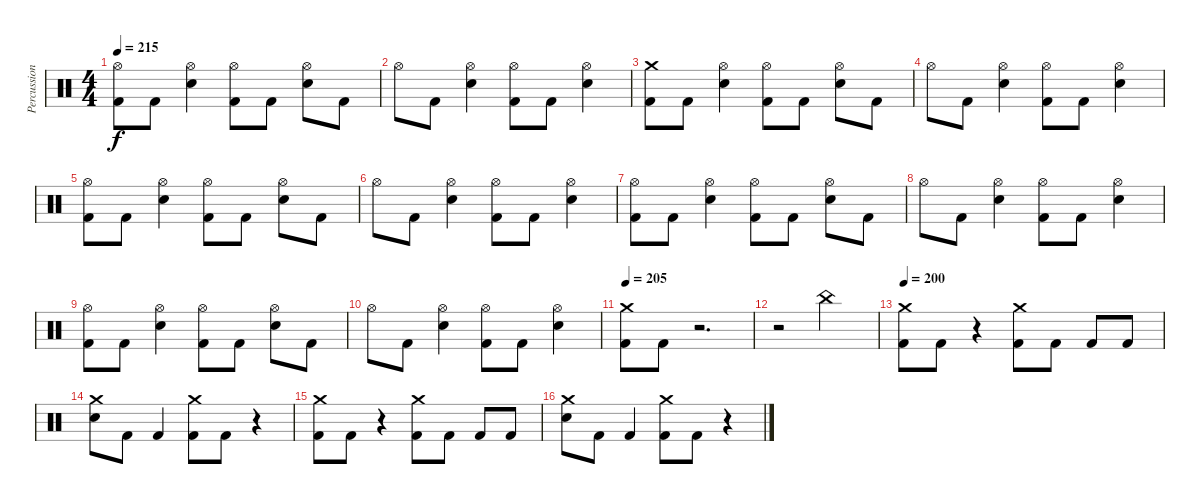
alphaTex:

\track ("Percussion" "Percussion") {instrument percussion}
\staff {score}
\articulation defaults
\ts (4 4)
\tempo 215
\clef neutral
\ks c
("Hi-Hat (open)" "Kick (hit) 2").8{dy f} "Kick (hit) 2".8 ("Hi-Hat (open)" "Electric Snare (hit)").4 ("Hi-Hat (open)" "Kick (hit) 2").8 "Kick (hit) 2".8 ("Hi-Hat (open)" "Electric Snare (hit)").8 "Kick (hit) 2".8 |
"Hi-Hat (open)".8 "Kick (hit) 2".8 ("Hi-Hat (open)" "Electric Snare (hit)").4 ("Hi-Hat (open)" "Kick (hit) 2").8 "Kick (hit) 2".8 ("Hi-Hat (open)" "Electric Snare (hit)").4 |
("Crash medium (hit)" "Kick (hit) 2").8 "Kick (hit) 2".8 ("Hi-Hat (open)" "Electric Snare (hit)").4 ("Hi-Hat (open)" "Kick (hit) 2").8 "Kick (hit) 2".8 ("Hi-Hat (open)" "Electric Snare (hit)").8 "Kick (hit) 2".8 |
"Hi-Hat (open)".8 "Kick (hit) 2".8 ("Hi-Hat (open)" "Electric Snare (hit)").4 ("Hi-Hat (open)" "Kick (hit) 2").8 "Kick (hit) 2".8 ("Hi-Hat (open)" "Electric Snare (hit)").4 |
("Hi-Hat (open)" "Kick (hit) 2").8 "Kick (hit) 2".8 ("Hi-Hat (open)" "Electric Snare (hit)").4 ("Hi-Hat (open)" "Kick (hit) 2").8 "Kick (hit) 2".8 ("Hi-Hat (open)" "Electric Snare (hit)").8 "Kick (hit) 2".8 |
"Hi-Hat (open)".8 "Kick (hit) 2".8 ("Hi-Hat (open)" "Electric Snare (hit)").4 ("Hi-Hat (open)" "Kick (hit) 2").8 "Kick (hit) 2".8 ("Hi-Hat (open)" "Electric Snare (hit)").4 |
("Hi-Hat (open)" "Kick (hit) 2").8 "Kick (hit) 2".8 ("Hi-Hat (open)" "Electric Snare (hit)").4 ("Hi-Hat (open)" "Kick (hit) 2").8 "Kick (hit) 2".8 ("Hi-Hat (open)" "Electric Snare (hit)").8 "Kick (hit) 2".8 |
"Hi-Hat (open)".8 "Kick (hit) 2".8 ("Hi-Hat (open)" "Electric Snare (hit)").4 ("Hi-Hat (open)" "Kick (hit) 2").8 "Kick (hit) 2".8 ("Hi-Hat (open)" "Electric Snare (hit)").4 |
("Hi-Hat (open)" "Kick (hit) 2").8 "Kick (hit) 2".8 ("Hi-Hat (open)" "Electric Snare (hit)").4 ("Hi-Hat (open)" "Kick (hit) 2").8 "Kick (hit) 2".8 ("Hi-Hat (open)" "Electric Snare (hit)").8 "Kick (hit) 2".8 |
"Hi-Hat (open)".8 "Kick (hit) 2".8 ("Hi-Hat (open)" "Electric Snare (hit)").4 ("Hi-Hat (open)" "Kick (hit) 2").8 "Kick (hit) 2".8 ("Hi-Hat (open)" "Electric Snare (hit)").4 |
\tempo 205
("Crash medium (hit)" "Kick (hit) 2").8 "Kick (hit) 2".8 r.2{d} |
r.2 "China (hit)".2 |
\tempo 200
("Crash medium (hit)" "Kick (hit) 2").8 "Kick (hit) 2".8 r.4 ("Crash medium (hit)" "Kick (hit) 2").8 "Kick (hit) 2".8 "Kick (hit) 2".8 "Kick (hit) 2".8 |
("Crash medium (hit)" "Electric Snare (hit)").8 "Kick (hit) 2".8 "Kick (hit) 2".4 ("Crash medium (hit)" "Kick (hit) 2").8 "Kick (hit) 2".8 r.4 |
("Crash medium (hit)" "Kick (hit) 2").8 "Kick (hit) 2".8 r.4 ("Crash medium (hit)" "Kick (hit) 2").8 "Kick (hit) 2".8 "Kick (hit) 2".8 "Kick (hit) 2".8 |
("Crash medium (hit)" "Electric Snare (hit)").8 "Kick (hit) 2".8 "Kick (hit) 2".4 ("Crash medium (hit)" "Kick (hit) 2").8 "Kick (hit) 2".8 r.4
